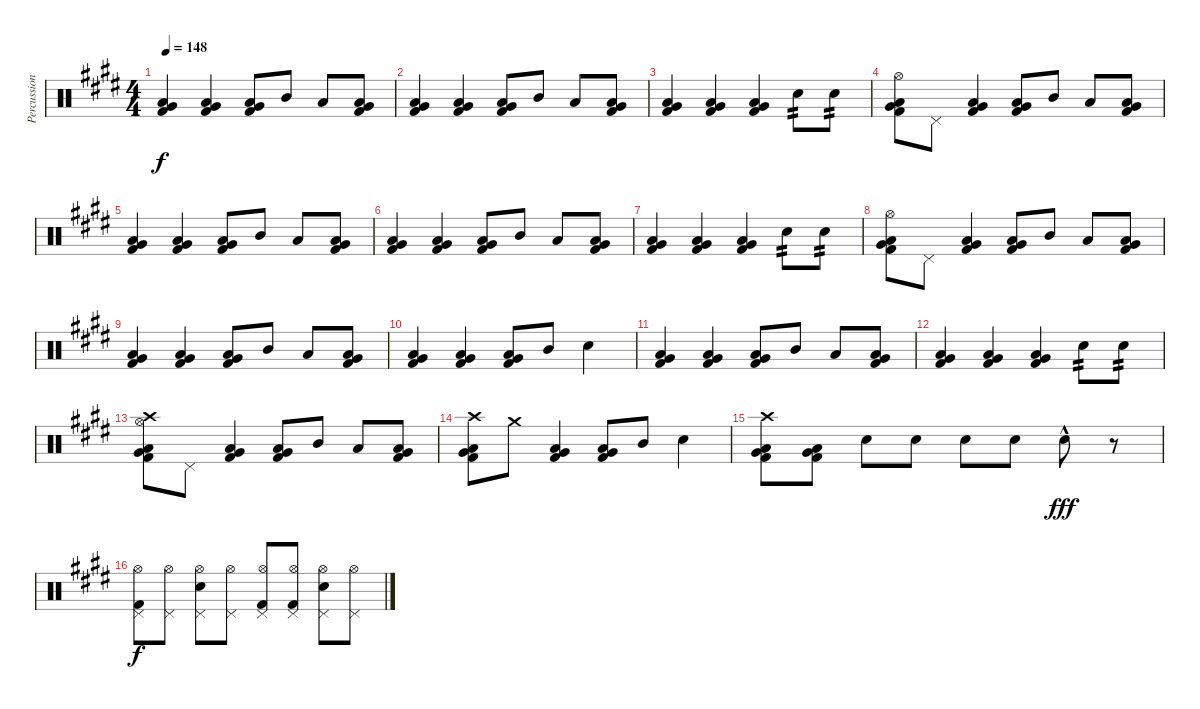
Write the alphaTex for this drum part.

\track ("Percussion" "Percussion") {instrument percussion}
\staff {score}
\articulation defaults
\ts (4 4)
\tempo 148
\clef neutral
\ks e
("Low Floor Tom (hit)" "Very Low Tom (hit)" "Kick (hit) 2").4{dy f} ("Low Floor Tom (hit)" "Very Low Tom (hit)" "Kick (hit) 2").4 ("Low Floor Tom (hit)" "Very Low Tom (hit)" "Kick (hit) 2").8 "Mid Tom (hit)".8 "Low Tom (hit)".8 ("Low Floor Tom (hit)" "Very Low Tom (hit)" "Kick (hit) 2").8 |
("Low Floor Tom (hit)" "Very Low Tom (hit)" "Kick (hit) 2").4 ("Low Floor Tom (hit)" "Very Low Tom (hit)" "Kick (hit) 2").4 ("Low Floor Tom (hit)" "Very Low Tom (hit)" "Kick (hit) 2").8 "Mid Tom (hit)".8 "Low Tom (hit)".8 ("Low Floor Tom (hit)" "Very Low Tom (hit)" "Kick (hit) 2").8 |
("Low Floor Tom (hit)" "Very Low Tom (hit)" "Kick (hit) 2").4 ("Low Floor Tom (hit)" "Very Low Tom (hit)" "Kick (hit) 2").4 ("Low Floor Tom (hit)" "Very Low Tom (hit)" "Kick (hit) 2").4 "Snare (hit) 2".8{tp 2} "Snare (hit) 2".8{tp 2} |
("Hi-Hat (open)" "Low Floor Tom (hit)" "Very Low Tom (hit)" "Kick (hit) 2").8 "Pedal Hi-Hat (hit)".8 ("Low Floor Tom (hit)" "Very Low Tom (hit)" "Kick (hit) 2").4 ("Low Floor Tom (hit)" "Very Low Tom (hit)" "Kick (hit) 2").8 "Mid Tom (hit)".8 "Low Tom (hit)".8 ("Low Floor Tom (hit)" "Very Low Tom (hit)" "Kick (hit) 2").8 |
("Low Floor Tom (hit)" "Very Low Tom (hit)" "Kick (hit) 2").4 ("Low Floor Tom (hit)" "Very Low Tom (hit)" "Kick (hit) 2").4 ("Low Floor Tom (hit)" "Very Low Tom (hit)" "Kick (hit) 2").8 "Mid Tom (hit)".8 "Low Tom (hit)".8 ("Low Floor Tom (hit)" "Very Low Tom (hit)" "Kick (hit) 2").8 |
("Low Floor Tom (hit)" "Very Low Tom (hit)" "Kick (hit) 2").4 ("Low Floor Tom (hit)" "Very Low Tom (hit)" "Kick (hit) 2").4 ("Low Floor Tom (hit)" "Very Low Tom (hit)" "Kick (hit) 2").8 "Mid Tom (hit)".8 "Low Tom (hit)".8 ("Low Floor Tom (hit)" "Very Low Tom (hit)" "Kick (hit) 2").8 |
("Low Floor Tom (hit)" "Very Low Tom (hit)" "Kick (hit) 2").4 ("Low Floor Tom (hit)" "Very Low Tom (hit)" "Kick (hit) 2").4 ("Low Floor Tom (hit)" "Very Low Tom (hit)" "Kick (hit) 2").4 "Snare (hit) 2".8{tp 2} "Snare (hit) 2".8{tp 2} |
("Hi-Hat (open)" "Low Floor Tom (hit)" "Very Low Tom (hit)" "Kick (hit) 2").8 "Pedal Hi-Hat (hit)".8 ("Low Floor Tom (hit)" "Very Low Tom (hit)" "Kick (hit) 2").4 ("Low Floor Tom (hit)" "Very Low Tom (hit)" "Kick (hit) 2").8 "Mid Tom (hit)".8 "Low Tom (hit)".8 ("Low Floor Tom (hit)" "Very Low Tom (hit)" "Kick (hit) 2").8 |
("Low Floor Tom (hit)" "Very Low Tom (hit)" "Kick (hit) 2").4 ("Low Floor Tom (hit)" "Very Low Tom (hit)" "Kick (hit) 2").4 ("Low Floor Tom (hit)" "Very Low Tom (hit)" "Kick (hit) 2").8 "Mid Tom (hit)".8 "Low Tom (hit)".8 ("Low Floor Tom (hit)" "Very Low Tom (hit)" "Kick (hit) 2").8 |
("Low Floor Tom (hit)" "Very Low Tom (hit)" "Kick (hit) 2").4 ("Low Floor Tom (hit)" "Very Low Tom (hit)" "Kick (hit) 2").4 ("Low Floor Tom (hit)" "Very Low Tom (hit)" "Kick (hit) 2").8 "Mid Tom (hit)".8 "Snare (hit) 2".4 |
("Low Floor Tom (hit)" "Very Low Tom (hit)" "Kick (hit) 2").4 ("Low Floor Tom (hit)" "Very Low Tom (hit)" "Kick (hit) 2").4 ("Low Floor Tom (hit)" "Very Low Tom (hit)" "Kick (hit) 2").8 "Mid Tom (hit)".8 "Low Tom (hit)".8 ("Low Floor Tom (hit)" "Very Low Tom (hit)" "Kick (hit) 2").8 |
("Low Floor Tom (hit)" "Very Low Tom (hit)" "Kick (hit) 2").4 ("Low Floor Tom (hit)" "Very Low Tom (hit)" "Kick (hit) 2").4 ("Low Floor Tom (hit)" "Very Low Tom (hit)" "Kick (hit) 2").4 "Snare (hit) 2".8{tp 2} "Snare (hit) 2".8{tp 2} |
("Crash high (hit)" "Hi-Hat (open)" "Low Floor Tom (hit)" "Very Low Tom (hit)" "Kick (hit) 2").8 "Pedal Hi-Hat (hit)".8 ("Low Floor Tom (hit)" "Very Low Tom (hit)" "Kick (hit) 2").4 ("Low Floor Tom (hit)" "Very Low Tom (hit)" "Kick (hit) 2").8 "Mid Tom (hit)".8 "Low Tom (hit)".8 ("Low Floor Tom (hit)" "Very Low Tom (hit)" "Kick (hit) 2").8 |
("Crash high (hit)" "Low Floor Tom (hit)" "Very Low Tom (hit)" "Kick (hit) 2").8 "Crash medium (hit)".8 ("Low Floor Tom (hit)" "Very Low Tom (hit)" "Kick (hit) 2").4 ("Low Floor Tom (hit)" "Very Low Tom (hit)" "Kick (hit) 2").8 "Mid Tom (hit)".8 "Snare (hit) 2".4 |
("Crash high (hit)" "Low Floor Tom (hit)" "Very Low Tom (hit)" "Kick (hit) 2").8 ("Low Floor Tom (hit)" "Very Low Tom (hit)" "Kick (hit) 2").8 "Snare (hit) 2".8 "Snare (hit) 2".8 "Snare (hit) 2".8 "Snare (hit) 2".8 "Snare (hit) 2"{hac}.8{dy fff} r.8 |
("Hi-Hat (open)" "Pedal Hi-Hat (hit)" "Kick (hit) 2").8{dy f} ("Hi-Hat (open)" "Pedal Hi-Hat (hit)").8 ("Hi-Hat (open)" "Pedal Hi-Hat (hit)" "Snare (hit) 2").8 ("Hi-Hat (open)" "Pedal Hi-Hat (hit)").8 ("Hi-Hat (open)" "Pedal Hi-Hat (hit)" "Kick (hit) 2").8 ("Hi-Hat (open)" "Pedal Hi-Hat (hit)" "Kick (hit) 2").8 ("Hi-Hat (open)" "Pedal Hi-Hat (hit)" "Snare (hit) 2").8 ("Hi-Hat (open)" "Pedal Hi-Hat (hit)").8
